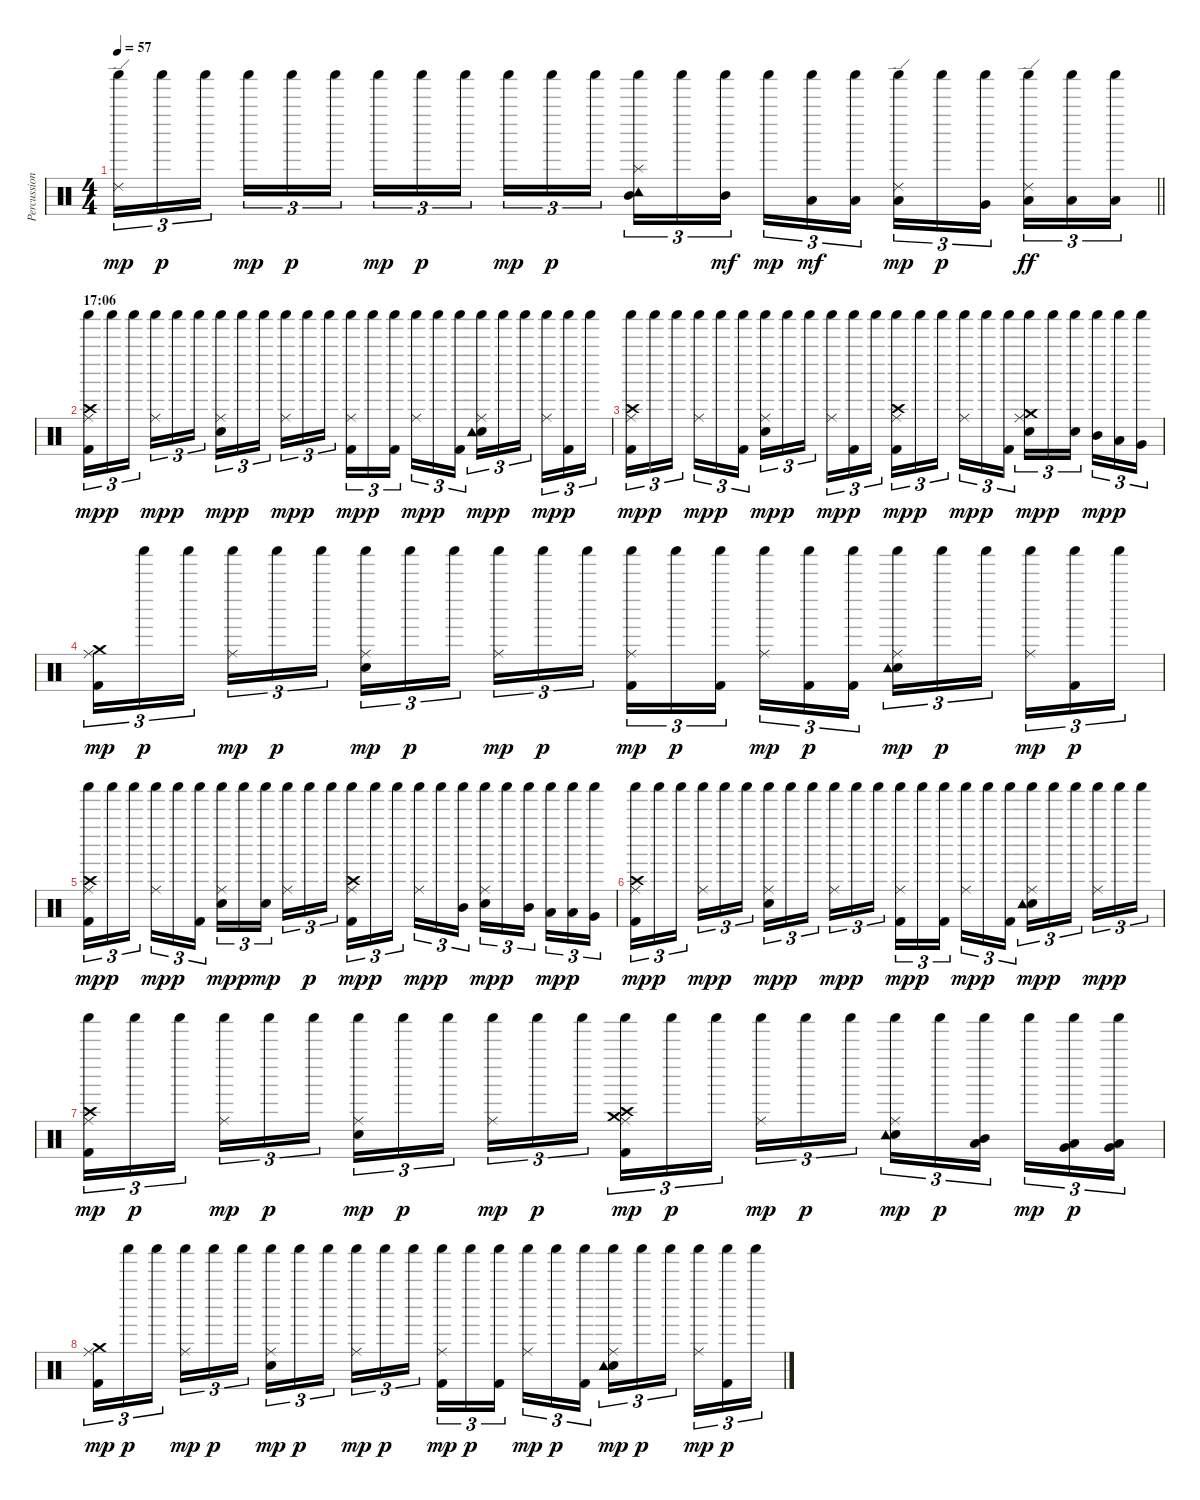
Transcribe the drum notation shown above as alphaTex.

\track ("Percussions" "Percussion") {instrument percussion}
\staff {score}
\articulation defaults
\ts (4 4)
\tempo 57
\clef neutral
\barLineRight lightlight
\ks c
("Ride (edge) 2" "Shaker (hit)").16{tu (3 2) dy mp} "Shaker (hit)".16{tu (3 2) dy p} "Shaker (hit)".16{tu (3 2) beam splitsecondary} "Shaker (hit)".16{tu (3 2) dy mp} "Shaker (hit)".16{tu (3 2) dy p} "Shaker (hit)".16{tu (3 2)} "Shaker (hit)".16{tu (3 2) dy mp} "Shaker (hit)".16{tu (3 2) dy p} "Shaker (hit)".16{tu (3 2) beam splitsecondary} "Shaker (hit)".16{tu (3 2) dy mp} "Shaker (hit)".16{tu (3 2) dy p} "Shaker (hit)".16{tu (3 2)} ("Shaker (hit)" "Mid Tom (hit)" "Tambourine (hit)" "Splash (hit)").16{tu (3 2)} "Shaker (hit)".16{tu (3 2)} ("Shaker (hit)" "Mid Tom (hit)").16{tu (3 2) dy mf beam splitsecondary} "Shaker (hit)".16{tu (3 2) dy mp} ("Shaker (hit)" "Low Tom (hit)").16{tu (3 2) dy mf} ("Shaker (hit)" "Low Tom (hit)").16{tu (3 2)} ("Ride (edge) 2" "Shaker (hit)" "Low Tom (hit)").16{tu (3 2) dy mp} "Shaker (hit)".16{tu (3 2) dy p} ("Shaker (hit)" "Very Low Tom (hit)").16{tu (3 2) beam splitsecondary} ("Ride (edge) 2" "Shaker (hit)" "Low Floor Tom (hit)").16{tu (3 2) dy ff} ("Shaker (hit)" "Low Floor Tom (hit)").16{tu (3 2)} ("Shaker (hit)" "Low Floor Tom (hit)").16{tu (3 2)} |
\section ("" "17:06")
("Crash high (hit)" "Shaker (hit)" "Ride (middle)" "Kick (hit) 2").16{tu (3 2) dy mp} "Shaker (hit)".16{tu (3 2) dy p} "Shaker (hit)".16{tu (3 2) beam splitsecondary} ("Shaker (hit)" "Ride (middle)").16{tu (3 2) dy mp} "Shaker (hit)".16{tu (3 2) dy p} "Shaker (hit)".16{tu (3 2)} ("Shaker (hit)" "Ride (middle)" "Snare (hit) 2").16{tu (3 2) dy mp} "Shaker (hit)".16{tu (3 2) dy p} "Shaker (hit)".16{tu (3 2) beam splitsecondary} ("Shaker (hit)" "Ride (middle)").16{tu (3 2) dy mp} "Shaker (hit)".16{tu (3 2) dy p} "Shaker (hit)".16{tu (3 2)} ("Shaker (hit)" "Ride (middle)" "Kick (hit) 2").16{tu (3 2) dy mp} "Shaker (hit)".16{tu (3 2) dy p} ("Shaker (hit)" "Kick (hit) 2").16{tu (3 2) beam splitsecondary} ("Shaker (hit)" "Ride (middle)").16{tu (3 2) dy mp} "Shaker (hit)".16{tu (3 2) dy p} ("Shaker (hit)" "Kick (hit) 2").16{tu (3 2)} ("Shaker (hit)" "Ride (middle)" "Snare (hit) 2" "Tambourine (hit)").16{tu (3 2) dy mp} "Shaker (hit)".16{tu (3 2) dy p} "Shaker (hit)".16{tu (3 2) beam splitsecondary} ("Shaker (hit)" "Ride (middle)").16{tu (3 2) dy mp} ("Shaker (hit)" "Kick (hit) 2").16{tu (3 2) dy p} "Shaker (hit)".16{tu (3 2)} |
("Crash high (hit)" "Shaker (hit)" "Ride (middle)" "Kick (hit) 2").16{tu (3 2) dy mp} "Shaker (hit)".16{tu (3 2) dy p} "Shaker (hit)".16{tu (3 2) beam splitsecondary} ("Shaker (hit)" "Ride (middle)").16{tu (3 2) dy mp} "Shaker (hit)".16{tu (3 2) dy p} ("Shaker (hit)" "Kick (hit) 2").16{tu (3 2)} ("Shaker (hit)" "Ride (middle)" "Snare (hit) 2").16{tu (3 2) dy mp} "Shaker (hit)".16{tu (3 2) dy p} "Shaker (hit)".16{tu (3 2) beam splitsecondary} ("Shaker (hit)" "Ride (middle)").16{tu (3 2) dy mp} ("Shaker (hit)" "Kick (hit) 2").16{tu (3 2) dy p} "Shaker (hit)".16{tu (3 2)} ("Crash high (hit)" "Shaker (hit)" "Ride (middle)" "Kick (hit) 2").16{tu (3 2) dy mp} "Shaker (hit)".16{tu (3 2) dy p} "Shaker (hit)".16{tu (3 2) beam splitsecondary} ("Shaker (hit)" "Ride (middle)").16{tu (3 2) dy mp} "Shaker (hit)".16{tu (3 2) dy p} ("Shaker (hit)" "Kick (hit) 2").16{tu (3 2)} ("Shaker (hit)" "Ride (middle)" "Snare (hit) 2" "Crash medium (hit)").16{tu (3 2) dy mp} "Shaker (hit)".16{tu (3 2) dy p} ("Shaker (hit)" "Snare (hit) 2").16{tu (3 2) beam splitsecondary} ("Shaker (hit)" "Mid Tom (hit)").16{tu (3 2) dy mp} ("Shaker (hit)" "Low Tom (hit)").16{tu (3 2) dy p} ("Shaker (hit)" "Very Low Tom (hit)").16{tu (3 2)} |
("Crash medium (hit)" "Ride (middle)" "Kick (hit) 2").16{tu (3 2) dy mp} "Shaker (hit)".16{tu (3 2) dy p} "Shaker (hit)".16{tu (3 2) beam splitsecondary} ("Shaker (hit)" "Ride (middle)").16{tu (3 2) dy mp} "Shaker (hit)".16{tu (3 2) dy p} "Shaker (hit)".16{tu (3 2)} ("Shaker (hit)" "Ride (middle)" "Snare (hit) 2").16{tu (3 2) dy mp} "Shaker (hit)".16{tu (3 2) dy p} "Shaker (hit)".16{tu (3 2) beam splitsecondary} ("Shaker (hit)" "Ride (middle)").16{tu (3 2) dy mp} "Shaker (hit)".16{tu (3 2) dy p} "Shaker (hit)".16{tu (3 2)} ("Shaker (hit)" "Ride (middle)" "Kick (hit) 2").16{tu (3 2) dy mp} "Shaker (hit)".16{tu (3 2) dy p} ("Shaker (hit)" "Kick (hit) 2").16{tu (3 2) beam splitsecondary} ("Shaker (hit)" "Ride (middle)").16{tu (3 2) dy mp} ("Shaker (hit)" "Kick (hit) 2").16{tu (3 2) dy p} ("Shaker (hit)" "Kick (hit) 2").16{tu (3 2)} ("Shaker (hit)" "Ride (middle)" "Snare (hit) 2" "Tambourine (hit)").16{tu (3 2) dy mp} "Shaker (hit)".16{tu (3 2) dy p} "Shaker (hit)".16{tu (3 2) beam splitsecondary} ("Shaker (hit)" "Ride (middle)").16{tu (3 2) dy mp} ("Shaker (hit)" "Kick (hit) 2").16{tu (3 2) dy p} "Shaker (hit)".16{tu (3 2)} |
("Crash high (hit)" "Shaker (hit)" "Ride (middle)" "Kick (hit) 2").16{tu (3 2) dy mp} "Shaker (hit)".16{tu (3 2) dy p} "Shaker (hit)".16{tu (3 2) beam splitsecondary} ("Shaker (hit)" "Ride (middle)").16{tu (3 2) dy mp} "Shaker (hit)".16{tu (3 2) dy p} ("Shaker (hit)" "Kick (hit) 2").16{tu (3 2)} ("Shaker (hit)" "Ride (middle)" "Snare (hit) 2").16{tu (3 2) dy mp} "Shaker (hit)".16{tu (3 2) dy p} ("Shaker (hit)" "Snare (hit) 2").16{tu (3 2) dy mp beam splitsecondary} ("Shaker (hit)" "Ride (middle)").16{tu (3 2)} "Shaker (hit)".16{tu (3 2) dy p} "Shaker (hit)".16{tu (3 2)} ("Crash high (hit)" "Shaker (hit)" "Ride (middle)" "Kick (hit) 2").16{tu (3 2) dy mp} "Shaker (hit)".16{tu (3 2) dy p} "Shaker (hit)".16{tu (3 2) beam splitsecondary} ("Shaker (hit)" "Ride (middle)").16{tu (3 2) dy mp} "Shaker (hit)".16{tu (3 2) dy p} ("Shaker (hit)" "Mid Tom (hit)").16{tu (3 2)} ("Shaker (hit)" "Ride (middle)" "Snare (hit) 2").16{tu (3 2) dy mp} "Shaker (hit)".16{tu (3 2) dy p} ("Shaker (hit)" "Mid Tom (hit)").16{tu (3 2) beam splitsecondary} ("Shaker (hit)" "Low Tom (hit)").16{tu (3 2) dy mp} ("Shaker (hit)" "Low Tom (hit)").16{tu (3 2) dy p} ("Shaker (hit)" "Very Low Tom (hit)").16{tu (3 2)} |
("Crash high (hit)" "Shaker (hit)" "Ride (middle)" "Kick (hit) 2").16{tu (3 2) dy mp} "Shaker (hit)".16{tu (3 2) dy p} "Shaker (hit)".16{tu (3 2) beam splitsecondary} ("Shaker (hit)" "Ride (middle)").16{tu (3 2) dy mp} "Shaker (hit)".16{tu (3 2) dy p} "Shaker (hit)".16{tu (3 2)} ("Shaker (hit)" "Ride (middle)" "Snare (hit) 2").16{tu (3 2) dy mp} "Shaker (hit)".16{tu (3 2) dy p} "Shaker (hit)".16{tu (3 2) beam splitsecondary} ("Shaker (hit)" "Ride (middle)").16{tu (3 2) dy mp} "Shaker (hit)".16{tu (3 2) dy p} "Shaker (hit)".16{tu (3 2)} ("Shaker (hit)" "Ride (middle)" "Kick (hit) 2").16{tu (3 2) dy mp} "Shaker (hit)".16{tu (3 2) dy p} ("Shaker (hit)" "Kick (hit) 2").16{tu (3 2) beam splitsecondary} ("Shaker (hit)" "Ride (middle)").16{tu (3 2) dy mp} "Shaker (hit)".16{tu (3 2) dy p} ("Shaker (hit)" "Kick (hit) 2").16{tu (3 2)} ("Shaker (hit)" "Ride (middle)" "Snare (hit) 2" "Tambourine (hit)").16{tu (3 2) dy mp} "Shaker (hit)".16{tu (3 2) dy p} "Shaker (hit)".16{tu (3 2) beam splitsecondary} ("Shaker (hit)" "Ride (middle)").16{tu (3 2) dy mp} "Shaker (hit)".16{tu (3 2) dy p} "Shaker (hit)".16{tu (3 2)} |
("Crash high (hit)" "Shaker (hit)" "Ride (middle)" "Kick (hit) 2").16{tu (3 2) dy mp} "Shaker (hit)".16{tu (3 2) dy p} "Shaker (hit)".16{tu (3 2) beam splitsecondary} ("Shaker (hit)" "Ride (middle)").16{tu (3 2) dy mp} "Shaker (hit)".16{tu (3 2) dy p} "Shaker (hit)".16{tu (3 2)} ("Shaker (hit)" "Ride (middle)" "Snare (hit) 2").16{tu (3 2) dy mp} "Shaker (hit)".16{tu (3 2) dy p} "Shaker (hit)".16{tu (3 2) beam splitsecondary} ("Shaker (hit)" "Ride (middle)").16{tu (3 2) dy mp} "Shaker (hit)".16{tu (3 2) dy p} "Shaker (hit)".16{tu (3 2)} ("Crash high (hit)" "Shaker (hit)" "Ride (middle)" "Crash medium (hit)" "Kick (hit) 2").16{tu (3 2) dy mp} "Shaker (hit)".16{tu (3 2) dy p} "Shaker (hit)".16{tu (3 2) beam splitsecondary} ("Shaker (hit)" "Ride (middle)").16{tu (3 2) dy mp} "Shaker (hit)".16{tu (3 2) dy p} "Shaker (hit)".16{tu (3 2)} ("Shaker (hit)" "Ride (middle)" "Snare (hit) 2" "Tambourine (hit)").16{tu (3 2) dy mp} "Shaker (hit)".16{tu (3 2) dy p} ("Shaker (hit)" "Mid Tom (hit)" "Low Tom (hit)").16{tu (3 2) beam splitsecondary} "Shaker (hit)".16{tu (3 2) dy mp} ("Shaker (hit)" "Low Tom (hit)" "Very Low Tom (hit)").16{tu (3 2) dy p} ("Shaker (hit)" "Very Low Tom (hit)" "Low Floor Tom (hit)").16{tu (3 2)} |
("Crash medium (hit)" "Ride (middle)" "Kick (hit) 2").16{tu (3 2) dy mp} "Shaker (hit)".16{tu (3 2) dy p} "Shaker (hit)".16{tu (3 2) beam splitsecondary} ("Shaker (hit)" "Ride (middle)").16{tu (3 2) dy mp} "Shaker (hit)".16{tu (3 2) dy p} "Shaker (hit)".16{tu (3 2)} ("Shaker (hit)" "Ride (middle)" "Snare (hit) 2").16{tu (3 2) dy mp} "Shaker (hit)".16{tu (3 2) dy p} "Shaker (hit)".16{tu (3 2) beam splitsecondary} ("Shaker (hit)" "Ride (middle)").16{tu (3 2) dy mp} "Shaker (hit)".16{tu (3 2) dy p} "Shaker (hit)".16{tu (3 2)} ("Shaker (hit)" "Ride (middle)" "Kick (hit) 2").16{tu (3 2) dy mp} "Shaker (hit)".16{tu (3 2) dy p} ("Shaker (hit)" "Kick (hit) 2").16{tu (3 2) beam splitsecondary} ("Shaker (hit)" "Ride (middle)").16{tu (3 2) dy mp} "Shaker (hit)".16{tu (3 2) dy p} ("Shaker (hit)" "Kick (hit) 2").16{tu (3 2)} ("Shaker (hit)" "Ride (middle)" "Snare (hit) 2" "Tambourine (hit)").16{tu (3 2) dy mp} "Shaker (hit)".16{tu (3 2) dy p} "Shaker (hit)".16{tu (3 2) beam splitsecondary} ("Shaker (hit)" "Ride (middle)").16{tu (3 2) dy mp} ("Shaker (hit)" "Kick (hit) 2").16{tu (3 2) dy p} "Shaker (hit)".16{tu (3 2)}
